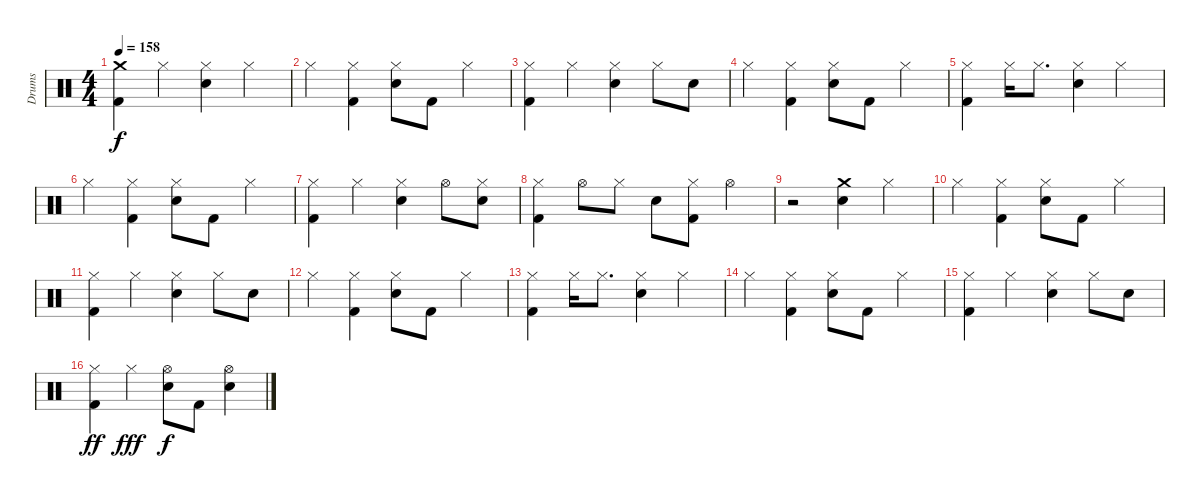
\track ("Drums" "Drums") {instrument percussion}
\staff {score}
\articulation defaults
\ts (4 4)
\tempo 158
\clef neutral
\ks c
("Crash medium (hit)" "Kick (hit) 2").4{dy f} "Hi-Hat (closed)".4 ("Hi-Hat (closed)" "Electric Snare (hit)").4 "Hi-Hat (closed)".4 |
"Hi-Hat (closed)".4 ("Hi-Hat (closed)" "Kick (hit) 2").4 ("Hi-Hat (closed)" "Electric Snare (hit)").8 "Kick (hit) 2".8 "Hi-Hat (closed)".4 |
("Hi-Hat (closed)" "Kick (hit) 2").4 "Hi-Hat (closed)".4 ("Hi-Hat (closed)" "Electric Snare (hit)").4 "Hi-Hat (closed)".8 "Electric Snare (hit)".8 |
"Hi-Hat (closed)".4 ("Hi-Hat (closed)" "Kick (hit) 2").4 ("Hi-Hat (closed)" "Electric Snare (hit)").8 "Kick (hit) 2".8 "Hi-Hat (closed)".4 |
("Hi-Hat (closed)" "Kick (hit) 2").4 "Hi-Hat (closed)".16 "Hi-Hat (closed)".8{d} ("Hi-Hat (closed)" "Electric Snare (hit)").4 "Hi-Hat (closed)".4 |
"Hi-Hat (closed)".4 ("Hi-Hat (closed)" "Kick (hit) 2").4 ("Hi-Hat (closed)" "Electric Snare (hit)").8 "Kick (hit) 2".8 "Hi-Hat (closed)".4 |
("Hi-Hat (closed)" "Kick (hit) 2").4 "Hi-Hat (closed)".4 ("Hi-Hat (closed)" "Electric Snare (hit)").4 "Hi-Hat (open)".8 ("Hi-Hat (closed)" "Electric Snare (hit)").8 |
("Hi-Hat (closed)" "Kick (hit) 2").4 "Hi-Hat (open)".8 "Hi-Hat (closed)".8 "Electric Snare (hit)".8 ("Hi-Hat (closed)" "Kick (hit) 2").8 "Hi-Hat (open)".4 |
r.2 ("Crash medium (hit)" "Electric Snare (hit)").4 "Hi-Hat (closed)".4 |
"Hi-Hat (closed)".4 ("Hi-Hat (closed)" "Kick (hit) 2").4 ("Hi-Hat (closed)" "Electric Snare (hit)").8 "Kick (hit) 2".8 "Hi-Hat (closed)".4 |
("Hi-Hat (closed)" "Kick (hit) 2").4 "Hi-Hat (closed)".4 ("Hi-Hat (closed)" "Electric Snare (hit)").4 "Hi-Hat (closed)".8 "Electric Snare (hit)".8 |
"Hi-Hat (closed)".4 ("Hi-Hat (closed)" "Kick (hit) 2").4 ("Hi-Hat (closed)" "Electric Snare (hit)").8 "Kick (hit) 2".8 "Hi-Hat (closed)".4 |
("Hi-Hat (closed)" "Kick (hit) 2").4 "Hi-Hat (closed)".16 "Hi-Hat (closed)".8{d} ("Hi-Hat (closed)" "Electric Snare (hit)").4 "Hi-Hat (closed)".4 |
"Hi-Hat (closed)".4 ("Hi-Hat (closed)" "Kick (hit) 2").4 ("Hi-Hat (closed)" "Electric Snare (hit)").8 "Kick (hit) 2".8 "Hi-Hat (closed)".4 |
("Hi-Hat (closed)" "Kick (hit) 2").4 "Hi-Hat (closed)".4 ("Hi-Hat (closed)" "Electric Snare (hit)").4 "Hi-Hat (closed)".8 "Electric Snare (hit)".8 |
("Hi-Hat (closed)" "Kick (hit) 2").4{dy ff} "Hi-Hat (closed)".4{dy fff} ("Hi-Hat (open)" "Electric Snare (hit)").8{dy f} "Kick (hit) 2".8 ("Hi-Hat (open)" "Electric Snare (hit)").4
